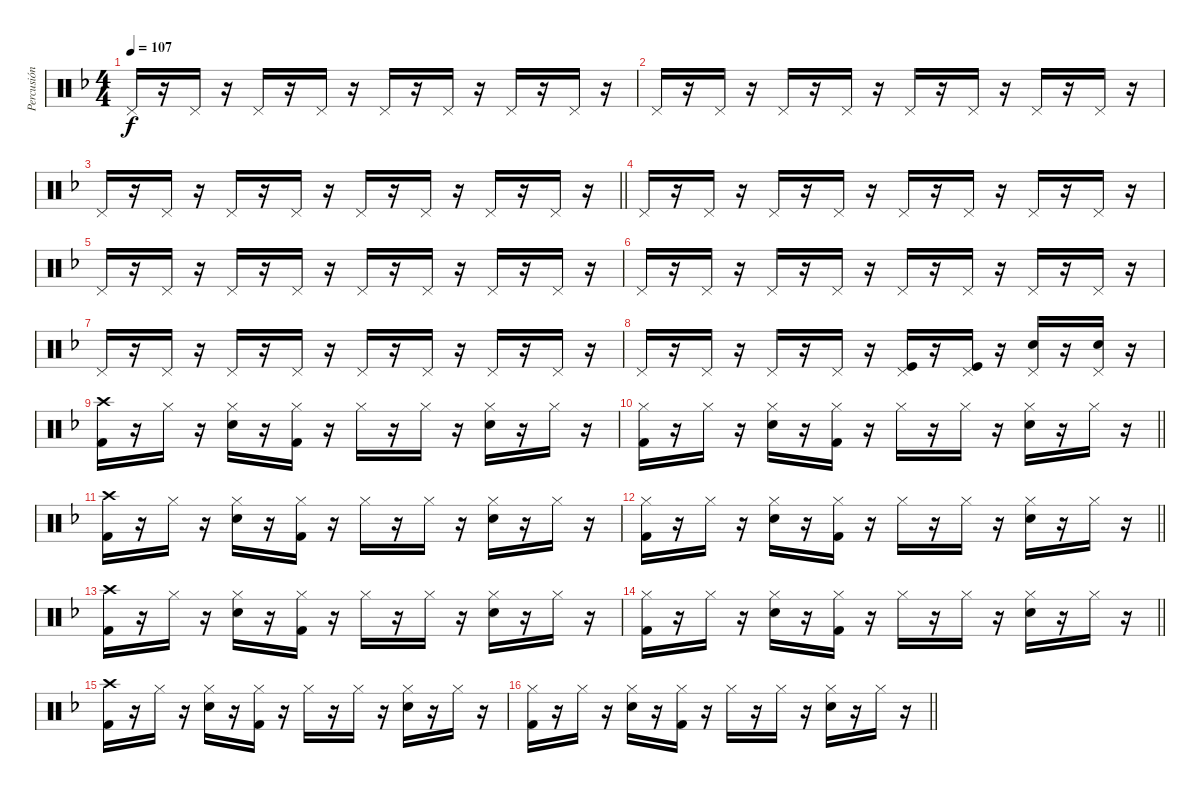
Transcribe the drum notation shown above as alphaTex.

\track ("Percusión" "Percusión") {instrument percussion}
\staff {score}
\articulation defaults
\ts (4 4)
\tempo 107
\clef neutral
\ks f "Pedal Hi-Hat (hit)".16{dy f volume 4}
r.16 "Pedal Hi-Hat (hit)".16 r.16 "Pedal Hi-Hat (hit)".16 r.16 "Pedal Hi-Hat (hit)".16 r.16 "Pedal Hi-Hat (hit)".16 r.16 "Pedal Hi-Hat (hit)".16 r.16 "Pedal Hi-Hat (hit)".16 r.16 "Pedal Hi-Hat (hit)".16 r.16 |
"Pedal Hi-Hat (hit)".16 r.16 "Pedal Hi-Hat (hit)".16 r.16 "Pedal Hi-Hat (hit)".16 r.16 "Pedal Hi-Hat (hit)".16 r.16 "Pedal Hi-Hat (hit)".16 r.16 "Pedal Hi-Hat (hit)".16 r.16 "Pedal Hi-Hat (hit)".16 r.16 "Pedal Hi-Hat (hit)".16 r.16 |
\barLineRight lightlight "Pedal Hi-Hat (hit)".16
r.16 "Pedal Hi-Hat (hit)".16 r.16 "Pedal Hi-Hat (hit)".16 r.16 "Pedal Hi-Hat (hit)".16 r.16 "Pedal Hi-Hat (hit)".16 r.16 "Pedal Hi-Hat (hit)".16 r.16 "Pedal Hi-Hat (hit)".16 r.16 "Pedal Hi-Hat (hit)".16 r.16 |
"Pedal Hi-Hat (hit)".16 r.16 "Pedal Hi-Hat (hit)".16 r.16 "Pedal Hi-Hat (hit)".16 r.16 "Pedal Hi-Hat (hit)".16 r.16 "Pedal Hi-Hat (hit)".16 r.16 "Pedal Hi-Hat (hit)".16 r.16 "Pedal Hi-Hat (hit)".16 r.16 "Pedal Hi-Hat (hit)".16 r.16 |
"Pedal Hi-Hat (hit)".16 r.16 "Pedal Hi-Hat (hit)".16 r.16 "Pedal Hi-Hat (hit)".16 r.16 "Pedal Hi-Hat (hit)".16 r.16 "Pedal Hi-Hat (hit)".16 r.16 "Pedal Hi-Hat (hit)".16 r.16 "Pedal Hi-Hat (hit)".16 r.16 "Pedal Hi-Hat (hit)".16 r.16 |
"Pedal Hi-Hat (hit)".16 r.16 "Pedal Hi-Hat (hit)".16 r.16 "Pedal Hi-Hat (hit)".16 r.16 "Pedal Hi-Hat (hit)".16 r.16 "Pedal Hi-Hat (hit)".16 r.16 "Pedal Hi-Hat (hit)".16 r.16 "Pedal Hi-Hat (hit)".16 r.16 "Pedal Hi-Hat (hit)".16 r.16 |
"Pedal Hi-Hat (hit)".16{volume 4} r.16 "Pedal Hi-Hat (hit)".16 r.16 "Pedal Hi-Hat (hit)".16 r.16 "Pedal Hi-Hat (hit)".16 r.16 "Pedal Hi-Hat (hit)".16 r.16 "Pedal Hi-Hat (hit)".16 r.16 "Pedal Hi-Hat (hit)".16 r.16 "Pedal Hi-Hat (hit)".16 r.16 |
"Pedal Hi-Hat (hit)".16 r.16 "Pedal Hi-Hat (hit)".16 r.16 "Pedal Hi-Hat (hit)".16 r.16 "Pedal Hi-Hat (hit)".16 r.16 ("Pedal Hi-Hat (hit)" "Kick (hit)").16 r.16 ("Pedal Hi-Hat (hit)" "Kick (hit)").16 r.16 ("Pedal Hi-Hat (hit)" "Electric Snare (hit)").16 r.16 ("Pedal Hi-Hat (hit)" "Electric Snare (hit)").16 r.16 |
("Crash high (hit)" "Kick (hit) 2").16 r.16 "Hi-Hat (closed)".16 r.16 ("Hi-Hat (closed)" "Snare (hit) 2").16 r.16 ("Hi-Hat (closed)" "Kick (hit) 2").16 r.16 "Hi-Hat (closed)".16 r.16 "Hi-Hat (closed)".16 r.16 ("Hi-Hat (closed)" "Snare (hit) 2").16 r.16 "Hi-Hat (closed)".16 r.16 |
\barLineRight lightlight
("Hi-Hat (closed)" "Kick (hit) 2").16 r.16 "Hi-Hat (closed)".16 r.16 ("Hi-Hat (closed)" "Snare (hit) 2").16 r.16 ("Hi-Hat (closed)" "Kick (hit) 2").16 r.16 "Hi-Hat (closed)".16 r.16 "Hi-Hat (closed)".16 r.16 ("Hi-Hat (closed)" "Snare (hit) 2").16 r.16 "Hi-Hat (closed)".16 r.16 |
("Crash high (hit)" "Kick (hit) 2").16 r.16 "Hi-Hat (closed)".16 r.16 ("Hi-Hat (closed)" "Snare (hit) 2").16 r.16 ("Hi-Hat (closed)" "Kick (hit) 2").16 r.16 "Hi-Hat (closed)".16 r.16 "Hi-Hat (closed)".16 r.16 ("Hi-Hat (closed)" "Snare (hit) 2").16 r.16 "Hi-Hat (closed)".16 r.16 |
\barLineRight lightlight
("Hi-Hat (closed)" "Kick (hit) 2").16 r.16 "Hi-Hat (closed)".16 r.16 ("Hi-Hat (closed)" "Snare (hit) 2").16 r.16 ("Hi-Hat (closed)" "Kick (hit) 2").16 r.16 "Hi-Hat (closed)".16 r.16 "Hi-Hat (closed)".16 r.16 ("Hi-Hat (closed)" "Snare (hit) 2").16 r.16 "Hi-Hat (closed)".16 r.16 |
("Crash high (hit)" "Kick (hit) 2").16 r.16 "Hi-Hat (closed)".16 r.16 ("Hi-Hat (closed)" "Snare (hit) 2").16 r.16 ("Hi-Hat (closed)" "Kick (hit) 2").16 r.16 "Hi-Hat (closed)".16 r.16 "Hi-Hat (closed)".16 r.16 ("Hi-Hat (closed)" "Snare (hit) 2").16 r.16 "Hi-Hat (closed)".16 r.16 |
\barLineRight lightlight
("Hi-Hat (closed)" "Kick (hit) 2").16 r.16 "Hi-Hat (closed)".16 r.16 ("Hi-Hat (closed)" "Snare (hit) 2").16 r.16 ("Hi-Hat (closed)" "Kick (hit) 2").16 r.16 "Hi-Hat (closed)".16 r.16 "Hi-Hat (closed)".16 r.16 ("Hi-Hat (closed)" "Snare (hit) 2").16 r.16 "Hi-Hat (closed)".16 r.16 |
("Crash high (hit)" "Kick (hit) 2").16 r.16 "Hi-Hat (closed)".16 r.16 ("Hi-Hat (closed)" "Snare (hit) 2").16 r.16 ("Hi-Hat (closed)" "Kick (hit) 2").16 r.16 "Hi-Hat (closed)".16 r.16 "Hi-Hat (closed)".16 r.16 ("Hi-Hat (closed)" "Snare (hit) 2").16 r.16 "Hi-Hat (closed)".16 r.16 |
\barLineRight lightlight
("Hi-Hat (closed)" "Kick (hit) 2").16 r.16 "Hi-Hat (closed)".16 r.16 ("Hi-Hat (closed)" "Snare (hit) 2").16 r.16 ("Hi-Hat (closed)" "Kick (hit) 2").16 r.16 "Hi-Hat (closed)".16 r.16 "Hi-Hat (closed)".16 r.16 ("Hi-Hat (closed)" "Snare (hit) 2").16 r.16 "Hi-Hat (closed)".16 r.16
